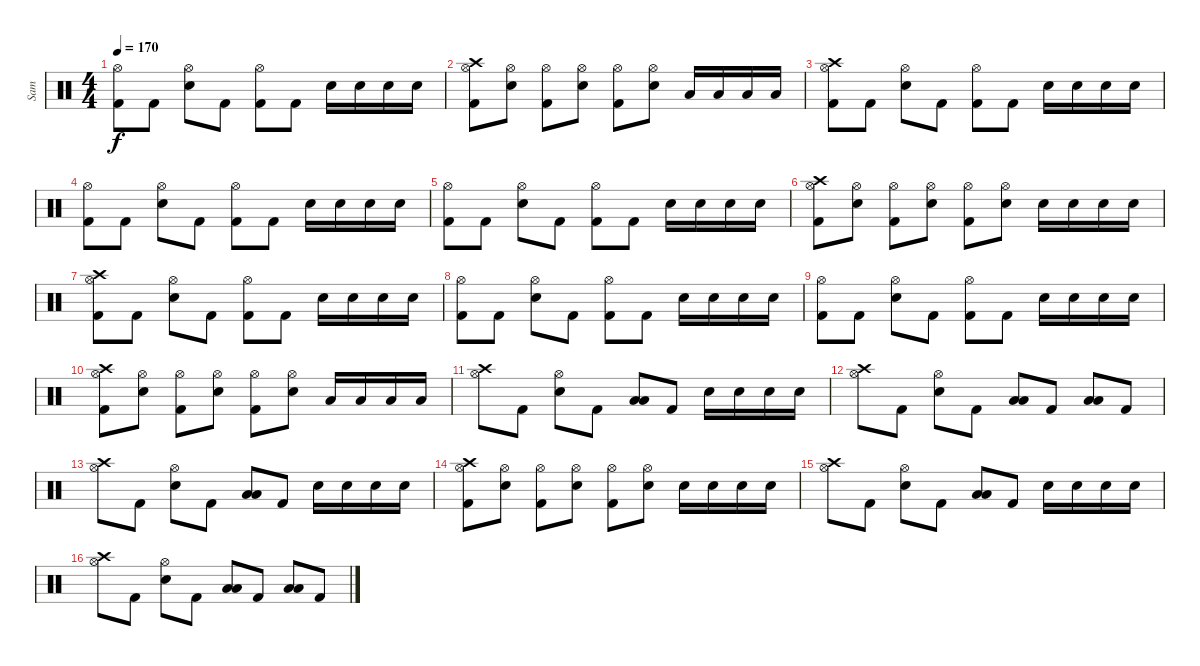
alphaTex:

\track ("Sam" "Sam") {instrument percussion}
\staff {score}
\articulation defaults
\ts (4 4)
\tempo 170
\clef neutral
\ks c
("Hi-Hat (open)" "Kick (hit) 2").8{dy f} "Kick (hit) 2".8 ("Hi-Hat (open)" "Electric Snare (hit)").8 "Kick (hit) 2".8 ("Hi-Hat (open)" "Kick (hit) 2").8 "Kick (hit) 2".8 "Electric Snare (hit)".16 "Electric Snare (hit)".16 "Electric Snare (hit)".16 "Electric Snare (hit)".16 |
("Hi-Hat (open)" "Crash high (hit)" "Kick (hit) 2").8 ("Hi-Hat (open)" "Electric Snare (hit)").8 ("Hi-Hat (open)" "Kick (hit) 2").8 ("Hi-Hat (open)" "Electric Snare (hit)").8 ("Hi-Hat (open)" "Kick (hit) 2").8 ("Hi-Hat (open)" "Electric Snare (hit)").8 "Low Tom (hit)".16 "Low Tom (hit)".16 "Low Floor Tom (hit)".16 "Low Floor Tom (hit)".16 |
("Hi-Hat (open)" "Crash high (hit)" "Kick (hit) 2").8 "Kick (hit) 2".8 ("Hi-Hat (open)" "Electric Snare (hit)").8 "Kick (hit) 2".8 ("Hi-Hat (open)" "Kick (hit) 2").8 "Kick (hit) 2".8 "Electric Snare (hit)".16 "Electric Snare (hit)".16 "Electric Snare (hit)".16 "Electric Snare (hit)".16 |
("Hi-Hat (open)" "Kick (hit) 2").8 "Kick (hit) 2".8 ("Hi-Hat (open)" "Electric Snare (hit)").8 "Kick (hit) 2".8 ("Hi-Hat (open)" "Kick (hit) 2").8 "Kick (hit) 2".8 "Electric Snare (hit)".16 "Electric Snare (hit)".16 "Electric Snare (hit)".16 "Electric Snare (hit)".16 |
("Hi-Hat (open)" "Kick (hit) 2").8 "Kick (hit) 2".8 ("Hi-Hat (open)" "Electric Snare (hit)").8 "Kick (hit) 2".8 ("Hi-Hat (open)" "Kick (hit) 2").8 "Kick (hit) 2".8 "Electric Snare (hit)".16 "Electric Snare (hit)".16 "Electric Snare (hit)".16 "Electric Snare (hit)".16 |
("Hi-Hat (open)" "Crash high (hit)" "Kick (hit) 2").8 ("Hi-Hat (open)" "Electric Snare (hit)").8 ("Hi-Hat (open)" "Kick (hit) 2").8 ("Hi-Hat (open)" "Electric Snare (hit)").8 ("Hi-Hat (open)" "Kick (hit) 2").8 ("Hi-Hat (open)" "Electric Snare (hit)").8 "Electric Snare (hit)".16 "Electric Snare (hit)".16 "Electric Snare (hit)".16 "Electric Snare (hit)".16 |
("Hi-Hat (open)" "Crash high (hit)" "Kick (hit) 2").8 "Kick (hit) 2".8 ("Hi-Hat (open)" "Electric Snare (hit)").8 "Kick (hit) 2".8 ("Hi-Hat (open)" "Kick (hit) 2").8 "Kick (hit) 2".8 "Electric Snare (hit)".16 "Electric Snare (hit)".16 "Electric Snare (hit)".16 "Electric Snare (hit)".16 |
("Hi-Hat (open)" "Kick (hit) 2").8 "Kick (hit) 2".8 ("Hi-Hat (open)" "Electric Snare (hit)").8 "Kick (hit) 2".8 ("Hi-Hat (open)" "Kick (hit) 2").8 "Kick (hit) 2".8 "Electric Snare (hit)".16 "Electric Snare (hit)".16 "Electric Snare (hit)".16 "Electric Snare (hit)".16 |
("Hi-Hat (open)" "Kick (hit) 2").8 "Kick (hit) 2".8 ("Hi-Hat (open)" "Electric Snare (hit)").8 "Kick (hit) 2".8 ("Hi-Hat (open)" "Kick (hit) 2").8 "Kick (hit) 2".8 "Electric Snare (hit)".16 "Electric Snare (hit)".16 "Electric Snare (hit)".16 "Electric Snare (hit)".16 |
("Hi-Hat (open)" "Crash high (hit)" "Kick (hit) 2").8 ("Hi-Hat (open)" "Electric Snare (hit)").8 ("Hi-Hat (open)" "Kick (hit) 2").8 ("Hi-Hat (open)" "Electric Snare (hit)").8 ("Hi-Hat (open)" "Kick (hit) 2").8 ("Hi-Hat (open)" "Electric Snare (hit)").8 "Low Tom (hit)".16 "Low Tom (hit)".16 "Low Floor Tom (hit)".16 "Low Floor Tom (hit)".16 |
("Hi-Hat (open)" "Crash high (hit)").8 "Kick (hit) 2".8 ("Hi-Hat (open)" "Electric Snare (hit)").8 "Kick (hit) 2".8 ("Low Tom (hit)" "Low Floor Tom (hit)").8 "Kick (hit) 2".8 "Electric Snare (hit)".16 "Electric Snare (hit)".16 "Electric Snare (hit)".16 "Electric Snare (hit)".16 |
("Hi-Hat (open)" "Crash high (hit)").8 "Kick (hit) 2".8 ("Hi-Hat (open)" "Electric Snare (hit)").8 "Kick (hit) 2".8 ("Low Tom (hit)" "Low Floor Tom (hit)").8 "Kick (hit) 2".8 ("Low Tom (hit)" "Low Floor Tom (hit)").8 "Kick (hit) 2".8 |
("Hi-Hat (open)" "Crash high (hit)").8 "Kick (hit) 2".8 ("Hi-Hat (open)" "Electric Snare (hit)").8 "Kick (hit) 2".8 ("Low Tom (hit)" "Low Floor Tom (hit)").8 "Kick (hit) 2".8 "Electric Snare (hit)".16 "Electric Snare (hit)".16 "Electric Snare (hit)".16 "Electric Snare (hit)".16 |
("Hi-Hat (open)" "Crash high (hit)" "Kick (hit) 2").8 ("Hi-Hat (open)" "Electric Snare (hit)").8 ("Hi-Hat (open)" "Kick (hit) 2").8 ("Hi-Hat (open)" "Electric Snare (hit)").8 ("Hi-Hat (open)" "Kick (hit) 2").8 ("Hi-Hat (open)" "Electric Snare (hit)").8 "Electric Snare (hit)".16 "Electric Snare (hit)".16 "Electric Snare (hit)".16 "Electric Snare (hit)".16 |
("Hi-Hat (open)" "Crash high (hit)").8 "Kick (hit) 2".8 ("Hi-Hat (open)" "Electric Snare (hit)").8 "Kick (hit) 2".8 ("Low Tom (hit)" "Low Floor Tom (hit)").8 "Kick (hit) 2".8 "Electric Snare (hit)".16 "Electric Snare (hit)".16 "Electric Snare (hit)".16 "Electric Snare (hit)".16 |
("Hi-Hat (open)" "Crash high (hit)").8 "Kick (hit) 2".8 ("Hi-Hat (open)" "Electric Snare (hit)").8 "Kick (hit) 2".8 ("Low Tom (hit)" "Low Floor Tom (hit)").8 "Kick (hit) 2".8 ("Low Tom (hit)" "Low Floor Tom (hit)").8 "Kick (hit) 2".8
